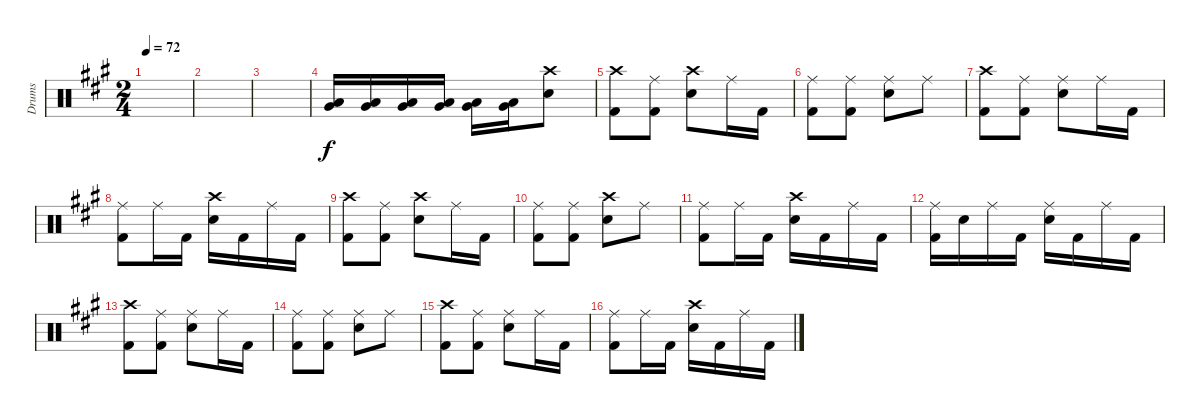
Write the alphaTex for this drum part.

\track ("Drums" "Drums") {instrument percussion}
\staff {score}
\articulation defaults
\ts (2 4)
\tempo 72
\clef neutral
\ks a
|
|
|
("Low Tom (hit)" "Very Low Tom (hit)").16 ("Low Tom (hit)" "Very Low Tom (hit)").16 ("Low Tom (hit)" "Very Low Tom (hit)").16 ("Low Tom (hit)" "Very Low Tom (hit)").16 ("Low Tom (hit)" "Very Low Tom (hit)").16 ("Low Tom (hit)" "Very Low Tom (hit)").16 ("Crash high (hit)" "Snare (hit) 2").8 |
("Crash high (hit)" "Kick (hit) 2").8 ("Ride (middle)" "Kick (hit) 2").8 ("Crash high (hit)" "Snare (hit) 2").8 "Ride (middle)".16 "Kick (hit) 2".16 |
("Ride (middle)" "Kick (hit) 2").8 ("Ride (middle)" "Kick (hit) 2").8 ("Ride (middle)" "Snare (hit) 2").8 "Ride (middle)".8 |
("Crash high (hit)" "Kick (hit) 2").8 ("Ride (middle)" "Kick (hit) 2").8 ("Ride (middle)" "Snare (hit) 2").8 "Ride (middle)".16 "Kick (hit) 2".16 |
("Ride (middle)" "Kick (hit) 2").8 "Ride (middle)".16 "Kick (hit) 2".16 ("Crash high (hit)" "Snare (hit) 2").16 "Kick (hit) 2".16 "Ride (middle)".16 "Kick (hit) 2".16 |
("Crash high (hit)" "Kick (hit) 2").8 ("Ride (middle)" "Kick (hit) 2").8 ("Crash high (hit)" "Snare (hit) 2").8 "Ride (middle)".16 "Kick (hit) 2".16 |
("Ride (middle)" "Kick (hit) 2").8 ("Ride (middle)" "Kick (hit) 2").8 ("Crash high (hit)" "Snare (hit) 2").8 "Ride (middle)".8 |
("Ride (middle)" "Kick (hit) 2").8 "Ride (middle)".16 "Kick (hit) 2".16 ("Crash high (hit)" "Snare (hit) 2").16 "Kick (hit) 2".16 "Ride (middle)".16 "Kick (hit) 2".16 |
("Ride (middle)" "Kick (hit) 2").16 "Snare (hit) 2".16 "Ride (middle)".16 "Kick (hit) 2".16 ("Ride (middle)" "Snare (hit) 2").16 "Kick (hit) 2".16 "Ride (middle)".16 "Kick (hit) 2".16 |
("Crash high (hit)" "Kick (hit) 2").8 ("Ride (middle)" "Kick (hit) 2").8 ("Ride (middle)" "Snare (hit) 2").8 "Ride (middle)".16 "Kick (hit) 2".16 |
("Ride (middle)" "Kick (hit) 2").8 ("Ride (middle)" "Kick (hit) 2").8 ("Ride (middle)" "Snare (hit) 2").8 "Ride (middle)".8 |
("Crash high (hit)" "Kick (hit) 2").8 ("Ride (middle)" "Kick (hit) 2").8 ("Ride (middle)" "Snare (hit) 2").8 "Ride (middle)".16 "Kick (hit) 2".16 |
("Ride (middle)" "Kick (hit) 2").8 "Ride (middle)".16 "Kick (hit) 2".16 ("Crash high (hit)" "Snare (hit) 2").16 "Kick (hit) 2".16 "Ride (middle)".16 "Kick (hit) 2".16
